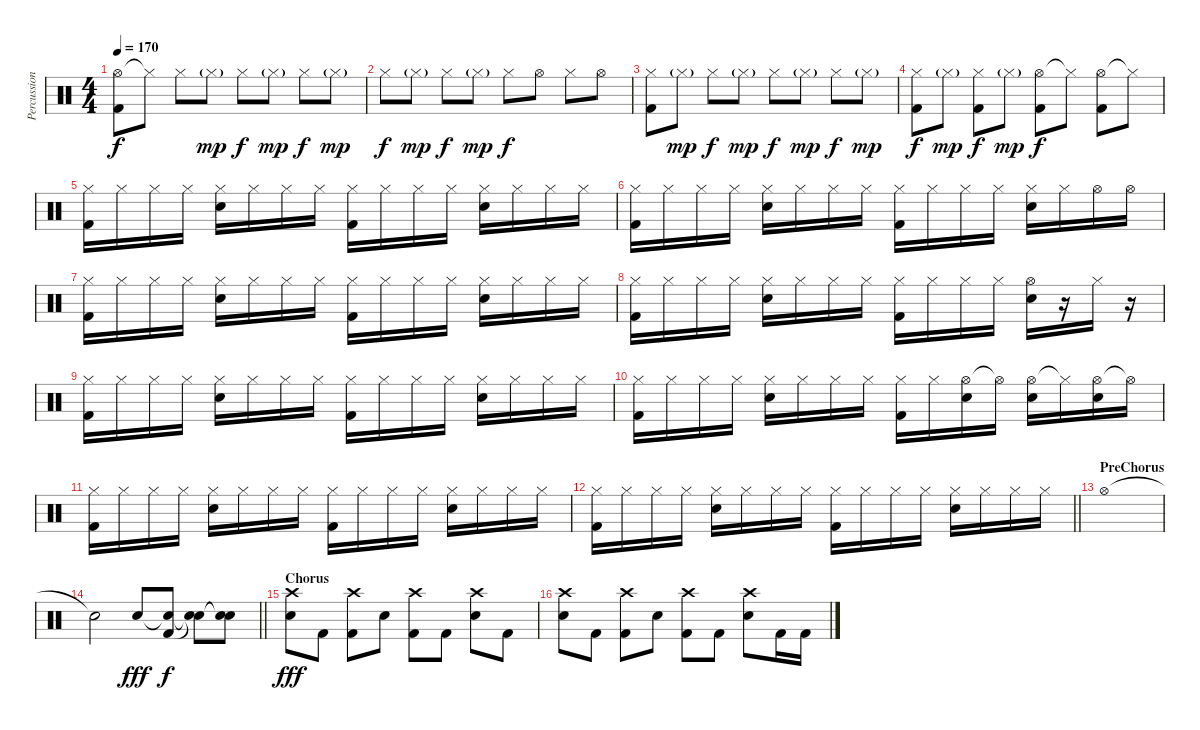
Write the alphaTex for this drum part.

\track ("Percussion" "Percussion") {instrument percussion}
\staff {score}
\articulation defaults
\ts (4 4)
\tempo 170
\clef neutral
\ks c
("Hi-Hat (open)" "Kick (hit) 2").8{dy f} "Hi-Hat (closed)"{t}.8 "Hi-Hat (closed)".8 "Hi-Hat (closed)"{g}.8{dy mp} "Hi-Hat (closed)".8{dy f} "Hi-Hat (closed)"{g}.8{dy mp} "Hi-Hat (closed)".8{dy f} "Hi-Hat (closed)"{g}.8{dy mp} |
"Hi-Hat (closed)".8{dy f} "Hi-Hat (closed)"{g}.8{dy mp} "Hi-Hat (closed)".8{dy f} "Hi-Hat (closed)"{g}.8{dy mp} "Hi-Hat (closed)".8{dy f} "Hi-Hat (open)".8 "Hi-Hat (closed)".8 "Hi-Hat (open)".8 |
("Hi-Hat (closed)" "Kick (hit) 2").8 "Hi-Hat (closed)"{g}.8{dy mp} "Hi-Hat (closed)".8{dy f} "Hi-Hat (closed)"{g}.8{dy mp} "Hi-Hat (closed)".8{dy f} "Hi-Hat (closed)"{g}.8{dy mp} "Hi-Hat (closed)".8{dy f} "Hi-Hat (closed)"{g}.8{dy mp} |
("Hi-Hat (closed)" "Kick (hit) 2").8{dy f} "Hi-Hat (closed)"{g}.8{dy mp} ("Hi-Hat (closed)" "Kick (hit) 2").8{dy f} "Hi-Hat (closed)"{g}.8{dy mp} ("Hi-Hat (open)" "Kick (hit) 2").8{dy f} "Hi-Hat (closed)"{t}.8 ("Hi-Hat (open)" "Kick (hit) 2").8 "Hi-Hat (closed)"{t}.8 |
("Hi-Hat (closed)" "Kick (hit) 2").16 "Hi-Hat (closed)".16 "Hi-Hat (closed)".16 "Hi-Hat (closed)".16 ("Hi-Hat (closed)" "Electric Snare (hit)").16 "Hi-Hat (closed)".16 "Hi-Hat (closed)".16 "Hi-Hat (closed)".16 ("Hi-Hat (closed)" "Kick (hit) 2").16 "Hi-Hat (closed)".16 "Hi-Hat (closed)".16 "Hi-Hat (closed)".16 ("Hi-Hat (closed)" "Electric Snare (hit)").16 "Hi-Hat (closed)".16 "Hi-Hat (closed)".16 "Hi-Hat (closed)".16 |
("Hi-Hat (closed)" "Kick (hit) 2").16 "Hi-Hat (closed)".16 "Hi-Hat (closed)".16 "Hi-Hat (closed)".16 ("Hi-Hat (closed)" "Electric Snare (hit)").16 "Hi-Hat (closed)".16 "Hi-Hat (closed)".16 "Hi-Hat (closed)".16 ("Hi-Hat (closed)" "Kick (hit) 2").16 "Hi-Hat (closed)".16 "Hi-Hat (closed)".16 "Hi-Hat (closed)".16 ("Hi-Hat (closed)" "Electric Snare (hit)").16 "Hi-Hat (closed)".16 "Hi-Hat (open)".16 "Hi-Hat (open)".16 |
("Hi-Hat (closed)" "Kick (hit) 2").16 "Hi-Hat (closed)".16 "Hi-Hat (closed)".16 "Hi-Hat (closed)".16 ("Hi-Hat (closed)" "Electric Snare (hit)").16 "Hi-Hat (closed)".16 "Hi-Hat (closed)".16 "Hi-Hat (closed)".16 ("Hi-Hat (closed)" "Kick (hit) 2").16 "Hi-Hat (closed)".16 "Hi-Hat (closed)".16 "Hi-Hat (closed)".16 ("Hi-Hat (closed)" "Electric Snare (hit)").16 "Hi-Hat (closed)".16 "Hi-Hat (closed)".16 "Hi-Hat (closed)".16 |
("Hi-Hat (closed)" "Kick (hit) 2").16 "Hi-Hat (closed)".16 "Hi-Hat (closed)".16 "Hi-Hat (closed)".16 ("Hi-Hat (closed)" "Electric Snare (hit)").16 "Hi-Hat (closed)".16 "Hi-Hat (closed)".16 "Hi-Hat (closed)".16 ("Hi-Hat (closed)" "Kick (hit) 2").16 "Hi-Hat (closed)".16 "Hi-Hat (closed)".16 "Hi-Hat (closed)".16 ("Hi-Hat (open)" "Electric Snare (hit)").16 r.16 "Hi-Hat (closed)".16 r.16 |
("Hi-Hat (closed)" "Kick (hit) 2").16 "Hi-Hat (closed)".16 "Hi-Hat (closed)".16 "Hi-Hat (closed)".16 ("Hi-Hat (closed)" "Electric Snare (hit)").16 "Hi-Hat (closed)".16 "Hi-Hat (closed)".16 "Hi-Hat (closed)".16 ("Hi-Hat (closed)" "Kick (hit) 2").16 "Hi-Hat (closed)".16 "Hi-Hat (closed)".16 "Hi-Hat (closed)".16 ("Hi-Hat (closed)" "Electric Snare (hit)").16 "Hi-Hat (closed)".16 "Hi-Hat (closed)".16 "Hi-Hat (closed)".16 |
("Hi-Hat (closed)" "Kick (hit) 2").16 "Hi-Hat (closed)".16 "Hi-Hat (closed)".16 "Hi-Hat (closed)".16 ("Hi-Hat (closed)" "Electric Snare (hit)").16 "Hi-Hat (closed)".16 "Hi-Hat (closed)".16 "Hi-Hat (closed)".16 ("Hi-Hat (closed)" "Kick (hit) 2").16 "Hi-Hat (closed)".16 ("Hi-Hat (open)" "Electric Snare (hit)").16 "Hi-Hat (open)"{t}.16 ("Hi-Hat (open)" "Electric Snare (hit)").16 "Hi-Hat (closed)"{t}.16 ("Hi-Hat (open)" "Electric Snare (hit)").16 "Hi-Hat (open)"{t}.16 |
("Hi-Hat (closed)" "Kick (hit) 2").16 "Hi-Hat (closed)".16 "Hi-Hat (closed)".16 "Hi-Hat (closed)".16 ("Hi-Hat (closed)" "Electric Snare (hit)").16 "Hi-Hat (closed)".16 "Hi-Hat (closed)".16 "Hi-Hat (closed)".16 ("Hi-Hat (closed)" "Kick (hit) 2").16 "Hi-Hat (closed)".16 "Hi-Hat (closed)".16 "Hi-Hat (closed)".16 ("Hi-Hat (closed)" "Electric Snare (hit)").16 "Hi-Hat (closed)".16 "Hi-Hat (closed)".16 "Hi-Hat (closed)".16 |
\barLineRight lightlight
("Hi-Hat (closed)" "Kick (hit) 2").16 "Hi-Hat (closed)".16 "Hi-Hat (closed)".16 "Hi-Hat (closed)".16 ("Hi-Hat (closed)" "Electric Snare (hit)").16 "Hi-Hat (closed)".16 "Hi-Hat (closed)".16 "Hi-Hat (closed)".16 ("Hi-Hat (closed)" "Kick (hit) 2").16 "Hi-Hat (closed)".16 "Hi-Hat (closed)".16 "Hi-Hat (closed)".16 ("Hi-Hat (closed)" "Electric Snare (hit)").16 "Hi-Hat (closed)".16 "Hi-Hat (closed)".16 "Hi-Hat (closed)".16 |
\section ("" "PreChorus")
"Hi-Hat (open)".1 |
\barLineRight lightlight "Snare (hit)"{t}.2 "Electric Snare (hit)".8{dy fff}
("Snare (hit)"{t} "Kick (hit) 2").8{dy f} ("Snare (hit)"{t} "Snare (hit)"{t}).8 ("Snare (hit)"{t} "Snare (hit)"{t}).8 |
\section ("" "Chorus")
("Crash high (hit)" "Electric Snare (hit)").8{dy fff} "Kick (hit) 2".8 ("Crash high (hit)" "Kick (hit) 2").8 "Electric Snare (hit)".8 ("Crash high (hit)" "Kick (hit) 2").8 "Kick (hit) 2".8 ("Crash high (hit)" "Electric Snare (hit)").8 "Kick (hit) 2".8 |
("Crash high (hit)" "Electric Snare (hit)").8 "Kick (hit) 2".8 ("Crash high (hit)" "Kick (hit) 2").8 "Electric Snare (hit)".8 ("Crash high (hit)" "Kick (hit) 2").8 "Kick (hit) 2".8 ("Crash high (hit)" "Electric Snare (hit)").8 "Kick (hit) 2".16 "Kick (hit) 2".16
